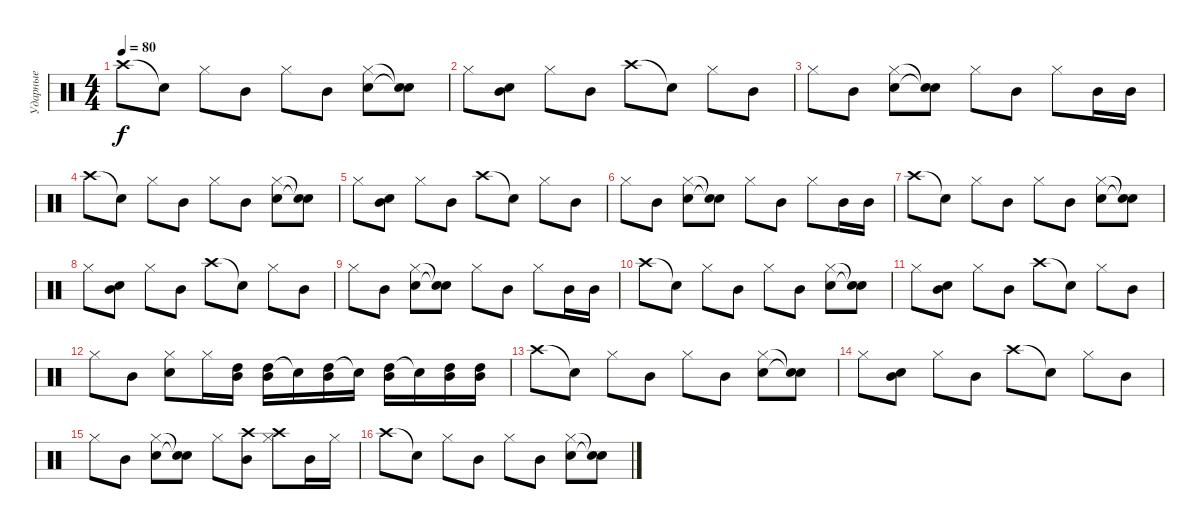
\track ("Ударные" "Ударные") {instrument percussion}
\staff {score}
\articulation defaults
\ts (4 4)
\tempo 80
\clef neutral
\ks c "Crash high (hit)".8{dy f} "Snare (hit)"{t}.8 "Hi-Hat (closed)".8 "Mid Tom (hit)".8 "Hi-Hat (closed)".8 "Mid Tom (hit)".8
("Electric Snare (hit)" "Hi-Hat (closed)").8 ("Snare (hit)"{t} "Snare (hit)"{t}).8 |
"Hi-Hat (closed)".8 ("Mid Tom (hit)" "Electric Snare (hit)").8 "Hi-Hat (closed)".8 "Mid Tom (hit)".8 "Crash high (hit)".8 "Snare (hit)"{t}.8 "Hi-Hat (closed)".8 "Mid Tom (hit)".8 |
"Hi-Hat (closed)".8 "Mid Tom (hit)".8 ("Electric Snare (hit)" "Hi-Hat (closed)").8 ("Snare (hit)"{t} "Snare (hit)"{t}).8 "Hi-Hat (closed)".8 "Mid Tom (hit)".8 "Hi-Hat (closed)".8 "Mid Tom (hit)".16 "Mid Tom (hit)".16 |
"Crash high (hit)".8 "Snare (hit)"{t}.8 "Hi-Hat (closed)".8 "Mid Tom (hit)".8 "Hi-Hat (closed)".8 "Mid Tom (hit)".8 ("Electric Snare (hit)" "Hi-Hat (closed)").8 ("Snare (hit)"{t} "Snare (hit)"{t}).8 |
"Hi-Hat (closed)".8 ("Mid Tom (hit)" "Electric Snare (hit)").8 "Hi-Hat (closed)".8 "Mid Tom (hit)".8 "Crash high (hit)".8 "Snare (hit)"{t}.8 "Hi-Hat (closed)".8 "Mid Tom (hit)".8 |
"Hi-Hat (closed)".8 "Mid Tom (hit)".8 ("Electric Snare (hit)" "Hi-Hat (closed)").8 ("Snare (hit)"{t} "Snare (hit)"{t}).8 "Hi-Hat (closed)".8 "Mid Tom (hit)".8 "Hi-Hat (closed)".8 "Mid Tom (hit)".16 "Mid Tom (hit)".16 |
"Crash high (hit)".8 "Snare (hit)"{t}.8 "Hi-Hat (closed)".8 "Mid Tom (hit)".8 "Hi-Hat (closed)".8 "Mid Tom (hit)".8 ("Electric Snare (hit)" "Hi-Hat (closed)").8 ("Snare (hit)"{t} "Snare (hit)"{t}).8 |
"Hi-Hat (closed)".8 ("Mid Tom (hit)" "Electric Snare (hit)").8 "Hi-Hat (closed)".8 "Mid Tom (hit)".8 "Crash high (hit)".8 "Snare (hit)"{t}.8 "Hi-Hat (closed)".8 "Mid Tom (hit)".8 |
"Hi-Hat (closed)".8 "Mid Tom (hit)".8 ("Electric Snare (hit)" "Hi-Hat (closed)").8 ("Snare (hit)"{t} "Snare (hit)"{t}).8 "Hi-Hat (closed)".8 "Mid Tom (hit)".8 "Hi-Hat (closed)".8 "Mid Tom (hit)".16 "Mid Tom (hit)".16 |
"Crash high (hit)".8 "Snare (hit)"{t}.8 "Hi-Hat (closed)".8 "Mid Tom (hit)".8 "Hi-Hat (closed)".8 "Mid Tom (hit)".8 ("Electric Snare (hit)" "Hi-Hat (closed)").8 ("Snare (hit)"{t} "Snare (hit)"{t}).8 |
"Hi-Hat (closed)".8 ("Mid Tom (hit)" "Electric Snare (hit)").8 "Hi-Hat (closed)".8 "Mid Tom (hit)".8 "Crash high (hit)".8 "Snare (hit)"{t}.8 "Hi-Hat (closed)".8 "Mid Tom (hit)".8 |
"Hi-Hat (closed)".8 "Mid Tom (hit)".8 ("Electric Snare (hit)" "Hi-Hat (closed)").8 "Hi-Hat (closed)".16 ("High Tom (hit)" "Mid Tom (hit)").16 ("High Tom (hit)" "Mid Tom (hit)").16 "Snare (hit)"{t}.16 ("High Tom (hit)" "Mid Tom (hit)").16 "Snare (hit)"{t}.16 ("High Tom (hit)" "Mid Tom (hit)").16 "Snare (hit)"{t}.16 ("High Tom (hit)" "Mid Tom (hit)").16 ("High Tom (hit)" "Mid Tom (hit)").16 |
"Crash high (hit)".8 "Snare (hit)"{t}.8 "Hi-Hat (closed)".8 "Mid Tom (hit)".8 "Hi-Hat (closed)".8 "Mid Tom (hit)".8 ("Electric Snare (hit)" "Hi-Hat (closed)").8 ("Snare (hit)"{t} "Snare (hit)"{t}).8 |
"Hi-Hat (closed)".8 ("Mid Tom (hit)" "Electric Snare (hit)").8 "Hi-Hat (closed)".8 "Mid Tom (hit)".8 "Crash high (hit)".8 "Snare (hit)"{t}.8 "Hi-Hat (closed)".8 "Mid Tom (hit)".8 |
"Hi-Hat (closed)".8 "Mid Tom (hit)".8 ("Electric Snare (hit)" "Hi-Hat (closed)").8 ("Snare (hit)"{t} "Snare (hit)"{t}).8 "Hi-Hat (closed)".8 ("Mid Tom (hit)" "Crash high (hit)").8 ("Hi-Hat (closed)" "Crash high (hit)").8 "Mid Tom (hit)".16 "Hi-Hat (closed)".16 |
"Crash high (hit)".8 "Snare (hit)"{t}.8 "Hi-Hat (closed)".8 "Mid Tom (hit)".8 "Hi-Hat (closed)".8 "Mid Tom (hit)".8 ("Electric Snare (hit)" "Hi-Hat (closed)").8 ("Snare (hit)"{t} "Snare (hit)"{t}).8
